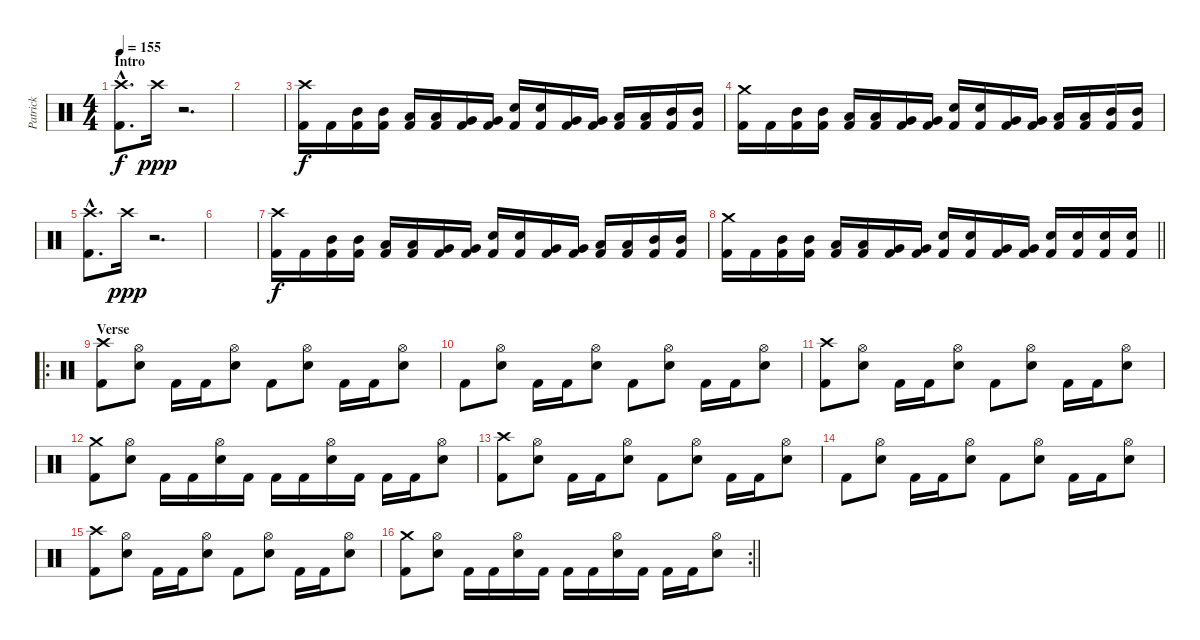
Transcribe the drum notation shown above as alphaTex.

\track ("Patrick" "Patrick") {instrument percussion}
\staff {score}
\articulation defaults
\ts (4 4)
\section ("" "Intro")
\tempo 155
\clef neutral
\ks c
("Crash high (hit)"{hac} "Kick (hit) 2"{hac}).8{d dy f} "Crash high (hit)".16{dy ppp} r.2{d} |
|
("Crash high (hit)" "Kick (hit) 2").16{dy f} "Kick (hit) 2".16 ("Mid Tom (hit)" "Kick (hit) 2").16 ("Mid Tom (hit)" "Kick (hit) 2").16 ("Low Tom (hit)" "Kick (hit) 2").16 ("Low Tom (hit)" "Kick (hit) 2").16 ("Very Low Tom (hit)" "Kick (hit) 2").16 ("Very Low Tom (hit)" "Kick (hit) 2").16 ("Electric Snare (hit)" "Kick (hit) 2").16 ("Electric Snare (hit)" "Kick (hit) 2").16 ("Very Low Tom (hit)" "Kick (hit) 2").16 ("Very Low Tom (hit)" "Kick (hit) 2").16 ("Low Tom (hit)" "Kick (hit) 2").16 ("Low Tom (hit)" "Kick (hit) 2").16 ("Mid Tom (hit)" "Kick (hit) 2").16 ("Mid Tom (hit)" "Kick (hit) 2").16 |
("Crash medium (hit)" "Kick (hit) 2").16 "Kick (hit) 2".16 ("Mid Tom (hit)" "Kick (hit) 2").16 ("Mid Tom (hit)" "Kick (hit) 2").16 ("Low Tom (hit)" "Kick (hit) 2").16 ("Low Tom (hit)" "Kick (hit) 2").16 ("Very Low Tom (hit)" "Kick (hit) 2").16 ("Very Low Tom (hit)" "Kick (hit) 2").16 ("Electric Snare (hit)" "Kick (hit) 2").16 ("Electric Snare (hit)" "Kick (hit) 2").16 ("Very Low Tom (hit)" "Kick (hit) 2").16 ("Very Low Tom (hit)" "Kick (hit) 2").16 ("Low Tom (hit)" "Kick (hit) 2").16 ("Low Tom (hit)" "Kick (hit) 2").16 ("Mid Tom (hit)" "Kick (hit) 2").16 ("Mid Tom (hit)" "Kick (hit) 2").16 |
("Crash high (hit)"{hac} "Kick (hit) 2"{hac}).8{d} "Crash high (hit)".16{dy ppp} r.2{d} |
|
("Crash high (hit)" "Kick (hit) 2").16{dy f} "Kick (hit) 2".16 ("Mid Tom (hit)" "Kick (hit) 2").16 ("Mid Tom (hit)" "Kick (hit) 2").16 ("Low Tom (hit)" "Kick (hit) 2").16 ("Low Tom (hit)" "Kick (hit) 2").16 ("Very Low Tom (hit)" "Kick (hit) 2").16 ("Very Low Tom (hit)" "Kick (hit) 2").16 ("Electric Snare (hit)" "Kick (hit) 2").16 ("Electric Snare (hit)" "Kick (hit) 2").16 ("Very Low Tom (hit)" "Kick (hit) 2").16 ("Very Low Tom (hit)" "Kick (hit) 2").16 ("Low Tom (hit)" "Kick (hit) 2").16 ("Low Tom (hit)" "Kick (hit) 2").16 ("Mid Tom (hit)" "Kick (hit) 2").16 ("Mid Tom (hit)" "Kick (hit) 2").16 |
\barLineRight lightlight
("Crash medium (hit)" "Kick (hit) 2").16 "Kick (hit) 2".16 ("Mid Tom (hit)" "Kick (hit) 2").16 ("Mid Tom (hit)" "Kick (hit) 2").16 ("Low Tom (hit)" "Kick (hit) 2").16 ("Low Tom (hit)" "Kick (hit) 2").16 ("Very Low Tom (hit)" "Kick (hit) 2").16 ("Very Low Tom (hit)" "Kick (hit) 2").16 ("Electric Snare (hit)" "Kick (hit) 2").16 ("Electric Snare (hit)" "Kick (hit) 2").16 ("Very Low Tom (hit)" "Kick (hit) 2").16 ("Very Low Tom (hit)" "Kick (hit) 2").16 ("Electric Snare (hit)" "Kick (hit) 2").16 ("Electric Snare (hit)" "Kick (hit) 2").16 ("Electric Snare (hit)" "Kick (hit) 2").16 ("Electric Snare (hit)" "Kick (hit) 2").16 |
\ro
\section ("" "Verse")
("Crash high (hit)" "Kick (hit) 2").8 ("Hi-Hat (open)" "Electric Snare (hit)").8 "Kick (hit) 2".16 "Kick (hit) 2".16 ("Hi-Hat (open)" "Electric Snare (hit)").8 "Kick (hit) 2".8 ("Hi-Hat (open)" "Electric Snare (hit)").8 "Kick (hit) 2".16 "Kick (hit) 2".16 ("Hi-Hat (open)" "Electric Snare (hit)").8 |
"Kick (hit) 2".8 ("Hi-Hat (open)" "Electric Snare (hit)").8 "Kick (hit) 2".16 "Kick (hit) 2".16 ("Hi-Hat (open)" "Electric Snare (hit)").8 "Kick (hit) 2".8 ("Hi-Hat (open)" "Electric Snare (hit)").8 "Kick (hit) 2".16 "Kick (hit) 2".16 ("Hi-Hat (open)" "Electric Snare (hit)").8 |
("Crash high (hit)" "Kick (hit) 2").8 ("Hi-Hat (open)" "Electric Snare (hit)").8 "Kick (hit) 2".16 "Kick (hit) 2".16 ("Hi-Hat (open)" "Electric Snare (hit)").8 "Kick (hit) 2".8 ("Hi-Hat (open)" "Electric Snare (hit)").8 "Kick (hit) 2".16 "Kick (hit) 2".16 ("Hi-Hat (open)" "Electric Snare (hit)").8 |
("Crash medium (hit)" "Kick (hit) 2").8 ("Hi-Hat (open)" "Electric Snare (hit)").8 "Kick (hit) 2".16 "Kick (hit) 2".16 ("Hi-Hat (open)" "Electric Snare (hit)").16 "Kick (hit) 2".16 "Kick (hit) 2".16 "Kick (hit) 2".16 ("Hi-Hat (open)" "Electric Snare (hit)").16 "Kick (hit) 2".16 "Kick (hit) 2".16 "Kick (hit) 2".16 ("Hi-Hat (open)" "Electric Snare (hit)").8 |
("Crash high (hit)" "Kick (hit) 2").8 ("Hi-Hat (open)" "Electric Snare (hit)").8 "Kick (hit) 2".16 "Kick (hit) 2".16 ("Hi-Hat (open)" "Electric Snare (hit)").8 "Kick (hit) 2".8 ("Hi-Hat (open)" "Electric Snare (hit)").8 "Kick (hit) 2".16 "Kick (hit) 2".16 ("Hi-Hat (open)" "Electric Snare (hit)").8 |
"Kick (hit) 2".8 ("Hi-Hat (open)" "Electric Snare (hit)").8 "Kick (hit) 2".16 "Kick (hit) 2".16 ("Hi-Hat (open)" "Electric Snare (hit)").8 "Kick (hit) 2".8 ("Hi-Hat (open)" "Electric Snare (hit)").8 "Kick (hit) 2".16 "Kick (hit) 2".16 ("Hi-Hat (open)" "Electric Snare (hit)").8 |
("Crash high (hit)" "Kick (hit) 2").8 ("Hi-Hat (open)" "Electric Snare (hit)").8 "Kick (hit) 2".16 "Kick (hit) 2".16 ("Hi-Hat (open)" "Electric Snare (hit)").8 "Kick (hit) 2".8 ("Hi-Hat (open)" "Electric Snare (hit)").8 "Kick (hit) 2".16 "Kick (hit) 2".16 ("Hi-Hat (open)" "Electric Snare (hit)").8 |
\rc 2
\barLineRight lightlight
("Crash medium (hit)" "Kick (hit) 2").8 ("Hi-Hat (open)" "Electric Snare (hit)").8 "Kick (hit) 2".16 "Kick (hit) 2".16 ("Hi-Hat (open)" "Electric Snare (hit)").16 "Kick (hit) 2".16 "Kick (hit) 2".16 "Kick (hit) 2".16 ("Hi-Hat (open)" "Electric Snare (hit)").16 "Kick (hit) 2".16 "Kick (hit) 2".16 "Kick (hit) 2".16 ("Hi-Hat (open)" "Electric Snare (hit)").8
